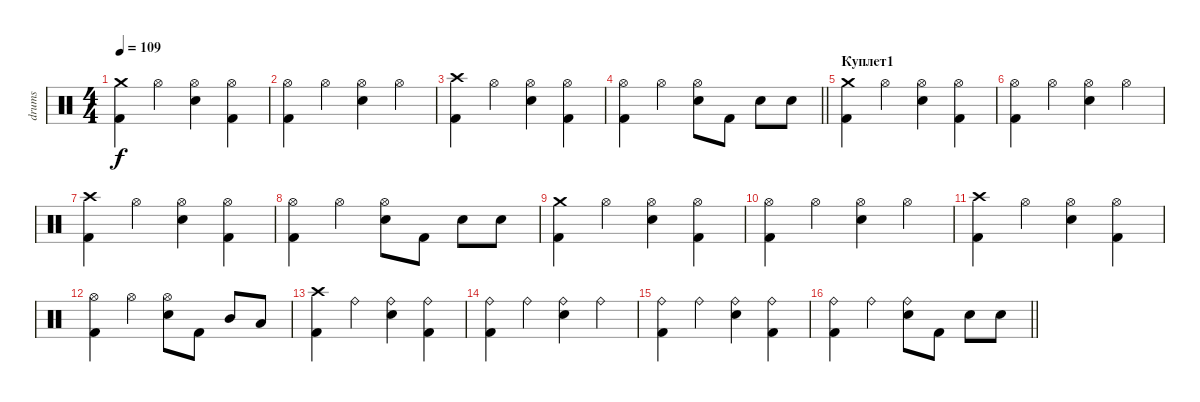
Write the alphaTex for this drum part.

\track ("drums" "drums") {instrument percussion}
\staff {score}
\articulation defaults
\ts (4 4)
\tempo 109
\clef neutral
\ks c
("Kick (hit) 2" "Crash medium (hit)").4{dy f} "Hi-Hat (open)".4 ("Electric Snare (hit)" "Hi-Hat (open)").4 ("Kick (hit) 2" "Hi-Hat (open)").4 |
("Hi-Hat (open)" "Kick (hit) 2").4 "Hi-Hat (open)".4 ("Hi-Hat (open)" "Electric Snare (hit)").4 "Hi-Hat (open)".4 |
("Kick (hit) 2" "Crash high (hit)").4 "Hi-Hat (open)".4 ("Electric Snare (hit)" "Hi-Hat (open)").4 ("Kick (hit) 2" "Hi-Hat (open)").4 |
\barLineRight lightlight
("Hi-Hat (open)" "Kick (hit) 2").4 "Hi-Hat (open)".4 ("Electric Snare (hit)" "Hi-Hat (open)").8 "Kick (hit) 2".8 "Electric Snare (hit)".8 "Electric Snare (hit)".8 |
\section ("" "Куплет1")
("Kick (hit) 2" "Crash medium (hit)").4 "Hi-Hat (open)".4 ("Electric Snare (hit)" "Hi-Hat (open)").4 ("Kick (hit) 2" "Hi-Hat (open)").4 |
("Hi-Hat (open)" "Kick (hit) 2").4 "Hi-Hat (open)".4 ("Hi-Hat (open)" "Electric Snare (hit)").4 "Hi-Hat (open)".4 |
("Kick (hit) 2" "Crash high (hit)").4 "Hi-Hat (open)".4 ("Electric Snare (hit)" "Hi-Hat (open)").4 ("Kick (hit) 2" "Hi-Hat (open)").4 |
("Hi-Hat (open)" "Kick (hit) 2").4 "Hi-Hat (open)".4 ("Electric Snare (hit)" "Hi-Hat (open)").8 "Kick (hit) 2".8 "Electric Snare (hit)".8 "Electric Snare (hit)".8 |
("Kick (hit) 2" "Crash medium (hit)").4 "Hi-Hat (open)".4 ("Electric Snare (hit)" "Hi-Hat (open)").4 ("Kick (hit) 2" "Hi-Hat (open)").4 |
("Hi-Hat (open)" "Kick (hit) 2").4 "Hi-Hat (open)".4 ("Hi-Hat (open)" "Electric Snare (hit)").4 "Hi-Hat (open)".4 |
("Kick (hit) 2" "Crash high (hit)").4 "Hi-Hat (open)".4 ("Electric Snare (hit)" "Hi-Hat (open)").4 ("Kick (hit) 2" "Hi-Hat (open)").4 |
("Hi-Hat (open)" "Kick (hit) 2").4 "Hi-Hat (open)".4 ("Electric Snare (hit)" "Hi-Hat (open)").8 "Kick (hit) 2".8 "Mid Tom (hit)".8 "Low Tom (hit)".8 |
("Crash high (hit)" "Kick (hit) 2").4 "Ride (bell)".4 ("Ride (bell)" "Electric Snare (hit)").4 ("Ride (bell)" "Kick (hit) 2").4 |
("Ride (bell)" "Kick (hit) 2").4 "Ride (bell)".4 ("Ride (bell)" "Electric Snare (hit)").4 "Ride (bell)".4 |
("Ride (bell)" "Kick (hit) 2").4 "Ride (bell)".4 ("Ride (bell)" "Electric Snare (hit)").4 ("Ride (bell)" "Kick (hit) 2").4 |
\barLineRight lightlight
("Ride (bell)" "Kick (hit) 2").4 "Ride (bell)".4 ("Ride (bell)" "Electric Snare (hit)").8 "Kick (hit) 2".8 "Electric Snare (hit)".8 "Electric Snare (hit)".8
